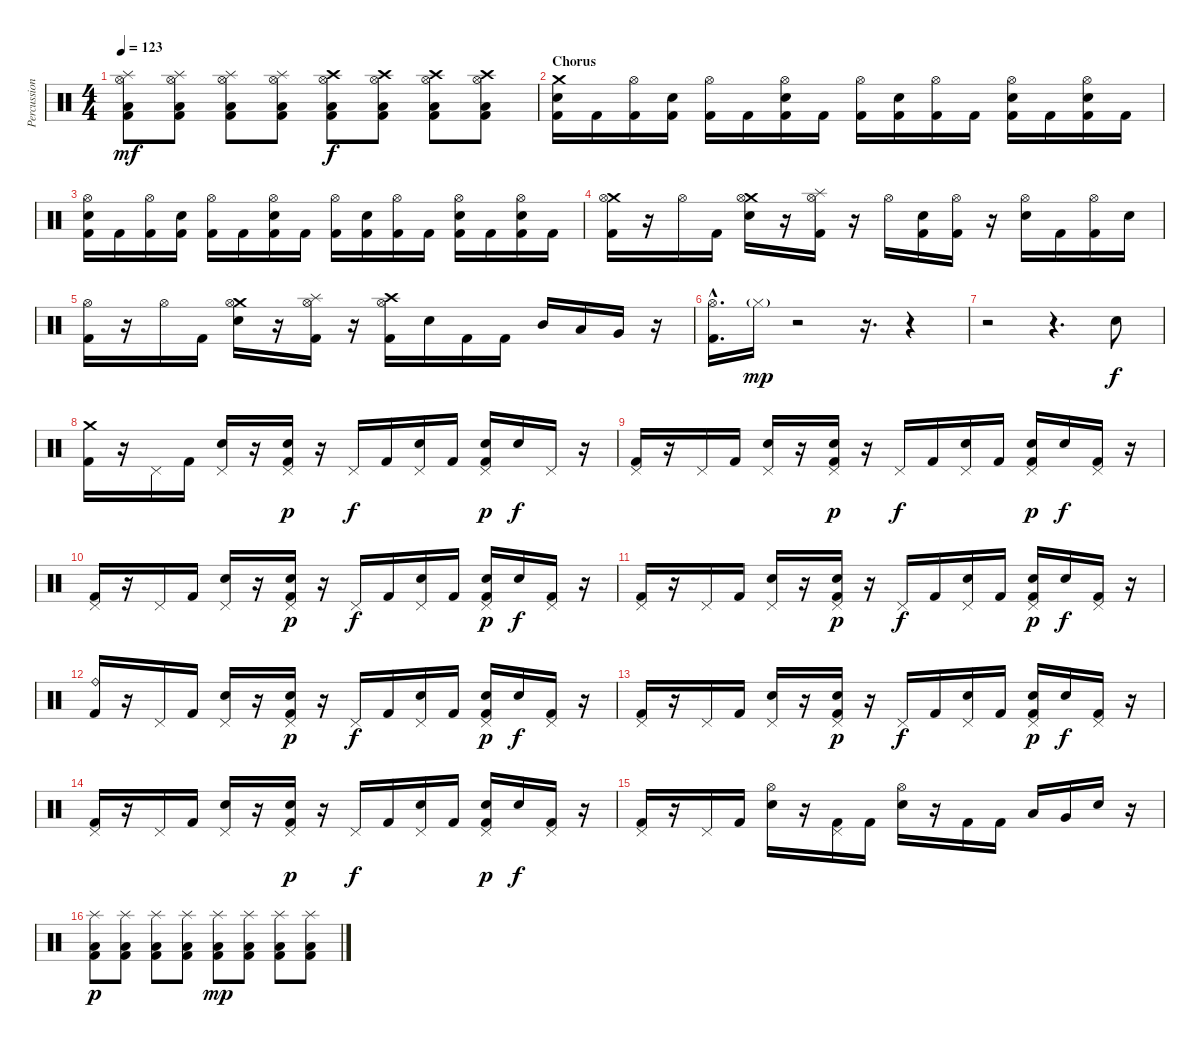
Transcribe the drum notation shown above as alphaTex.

\track ("Percussion" "Percussion") {instrument percussion}
\staff {score}
\articulation defaults
\ts (4 4)
\tempo 123
\clef neutral
\ks c
("Splash (hit)" "Hi-Hat (open)" "Low Floor Tom (hit)" "Kick (hit) 2").8{dy mf} ("Splash (hit)" "Hi-Hat (open)" "Low Floor Tom (hit)" "Kick (hit) 2").8 ("Splash (hit)" "Hi-Hat (open)" "Low Floor Tom (hit)" "Kick (hit) 2").8 ("Splash (hit)" "Hi-Hat (open)" "Low Floor Tom (hit)" "Kick (hit) 2").8 ("Hi-Hat (open)" "Crash high (hit)" "Low Floor Tom (hit)" "Kick (hit) 2").8{dy f} ("Hi-Hat (open)" "Crash high (hit)" "Low Floor Tom (hit)" "Kick (hit) 2").8 ("Hi-Hat (open)" "Crash high (hit)" "Low Floor Tom (hit)" "Kick (hit) 2").8 ("Hi-Hat (open)" "Crash high (hit)" "Low Floor Tom (hit)" "Kick (hit) 2").8 |
\section ("" "Chorus")
("Crash medium (hit)" "Electric Snare (hit)" "Kick (hit) 2").16 "Kick (hit) 2".16 ("Hi-Hat (open)" "Kick (hit) 2").16 ("Electric Snare (hit)" "Kick (hit) 2").16 ("Hi-Hat (open)" "Kick (hit) 2").16 "Kick (hit) 2".16 ("Hi-Hat (open)" "Electric Snare (hit)" "Kick (hit) 2").16 "Kick (hit) 2".16 ("Hi-Hat (open)" "Kick (hit) 2").16 ("Electric Snare (hit)" "Kick (hit) 2").16 ("Hi-Hat (open)" "Kick (hit) 2").16 "Kick (hit) 2".16 ("Hi-Hat (open)" "Electric Snare (hit)" "Kick (hit) 2").16 "Kick (hit) 2".16 ("Hi-Hat (open)" "Electric Snare (hit)" "Kick (hit) 2").16 "Kick (hit) 2".16 |
("Hi-Hat (open)" "Electric Snare (hit)" "Kick (hit) 2").16 "Kick (hit) 2".16 ("Hi-Hat (open)" "Kick (hit) 2").16 ("Electric Snare (hit)" "Kick (hit) 2").16 ("Hi-Hat (open)" "Kick (hit) 2").16 "Kick (hit) 2".16 ("Hi-Hat (open)" "Electric Snare (hit)" "Kick (hit) 2").16 "Kick (hit) 2".16 ("Hi-Hat (open)" "Kick (hit) 2").16 ("Electric Snare (hit)" "Kick (hit) 2").16 ("Hi-Hat (open)" "Kick (hit) 2").16 "Kick (hit) 2".16 ("Hi-Hat (open)" "Electric Snare (hit)" "Kick (hit) 2").16 "Kick (hit) 2".16 ("Hi-Hat (open)" "Electric Snare (hit)" "Kick (hit) 2").16 "Kick (hit) 2".16 |
("Crash medium (hit)" "Hi-Hat (open)" "Kick (hit) 2").16 r.16 "Hi-Hat (open)".16 "Kick (hit) 2".16 ("Crash medium (hit)" "Hi-Hat (open)" "Electric Snare (hit)").16 r.16 ("Splash (hit)" "Hi-Hat (open)" "Kick (hit) 2").16 r.16 "Hi-Hat (open)".16 ("Electric Snare (hit)" "Kick (hit) 2").16 ("Hi-Hat (open)" "Kick (hit) 2").16 r.16 ("Hi-Hat (open)" "Electric Snare (hit)").16 "Kick (hit) 2".16 ("Hi-Hat (open)" "Kick (hit) 2").16 "Electric Snare (hit)".16 |
("Hi-Hat (open)" "Kick (hit) 2").16 r.16 "Hi-Hat (open)".16 "Kick (hit) 2".16 ("Crash medium (hit)" "Hi-Hat (open)" "Electric Snare (hit)").16 r.16 ("Splash (hit)" "Hi-Hat (open)" "Kick (hit) 2").16 r.16 ("Hi-Hat (open)" "Crash high (hit)" "Kick (hit) 2").16 "Electric Snare (hit)".16 "Kick (hit) 2".16 "Kick (hit) 2".16 "Mid Tom (hit)".16 "Low Tom (hit)".16 "Very Low Tom (hit)".16 r.16 |
("Hi-Hat (open)"{hac} "Kick (hit) 2"{hac}).16{d} "Hi-Hat (closed)"{g}.16{dy mp} r.2 r.16{d} r.4 |
r.2 r.4{d} "Electric Snare (hit)".8{dy f} |
("Crash medium (hit)" "Kick (hit) 2").16 r.16 "Pedal Hi-Hat (hit)".16 "Kick (hit) 2".16 ("Pedal Hi-Hat (hit)" "Electric Snare (hit)").16 r.16 ("Pedal Hi-Hat (hit)" "Electric Snare (hit)" "Kick (hit) 2").16{dy p} r.16 "Pedal Hi-Hat (hit)".16{dy f} "Kick (hit) 2".16 ("Pedal Hi-Hat (hit)" "Electric Snare (hit)").16 "Kick (hit) 2".16 ("Pedal Hi-Hat (hit)" "Electric Snare (hit)" "Kick (hit) 2").16{dy p} "Electric Snare (hit)".16{dy f} "Pedal Hi-Hat (hit)".16 r.16 |
("Pedal Hi-Hat (hit)" "Kick (hit) 2").16 r.16 "Pedal Hi-Hat (hit)".16 "Kick (hit) 2".16 ("Pedal Hi-Hat (hit)" "Electric Snare (hit)").16 r.16 ("Pedal Hi-Hat (hit)" "Electric Snare (hit)" "Kick (hit) 2").16{dy p} r.16 "Pedal Hi-Hat (hit)".16{dy f} "Kick (hit) 2".16 ("Pedal Hi-Hat (hit)" "Electric Snare (hit)").16 "Kick (hit) 2".16 ("Pedal Hi-Hat (hit)" "Electric Snare (hit)" "Kick (hit) 2").16{dy p} "Electric Snare (hit)".16{dy f} ("Pedal Hi-Hat (hit)" "Kick (hit) 2").16 r.16 |
("Pedal Hi-Hat (hit)" "Kick (hit) 2").16 r.16 "Pedal Hi-Hat (hit)".16 "Kick (hit) 2".16 ("Pedal Hi-Hat (hit)" "Electric Snare (hit)").16 r.16 ("Pedal Hi-Hat (hit)" "Electric Snare (hit)" "Kick (hit) 2").16{dy p} r.16 "Pedal Hi-Hat (hit)".16{dy f} "Kick (hit) 2".16 ("Pedal Hi-Hat (hit)" "Electric Snare (hit)").16 "Kick (hit) 2".16 ("Pedal Hi-Hat (hit)" "Electric Snare (hit)" "Kick (hit) 2").16{dy p} "Electric Snare (hit)".16{dy f} ("Pedal Hi-Hat (hit)" "Kick (hit) 2").16 r.16 |
("Pedal Hi-Hat (hit)" "Kick (hit) 2").16 r.16 "Pedal Hi-Hat (hit)".16 "Kick (hit) 2".16 ("Pedal Hi-Hat (hit)" "Electric Snare (hit)").16 r.16 ("Pedal Hi-Hat (hit)" "Electric Snare (hit)" "Kick (hit) 2").16{dy p} r.16 "Pedal Hi-Hat (hit)".16{dy f} "Kick (hit) 2".16 ("Pedal Hi-Hat (hit)" "Electric Snare (hit)").16 "Kick (hit) 2".16 ("Pedal Hi-Hat (hit)" "Electric Snare (hit)" "Kick (hit) 2").16{dy p} "Electric Snare (hit)".16{dy f} ("Pedal Hi-Hat (hit)" "Kick (hit) 2").16 r.16 |
("Ride (bell)" "Kick (hit) 2").16 r.16 "Pedal Hi-Hat (hit)".16 "Kick (hit) 2".16 ("Pedal Hi-Hat (hit)" "Electric Snare (hit)").16 r.16 ("Pedal Hi-Hat (hit)" "Electric Snare (hit)" "Kick (hit) 2").16{dy p} r.16 "Pedal Hi-Hat (hit)".16{dy f} "Kick (hit) 2".16 ("Pedal Hi-Hat (hit)" "Electric Snare (hit)").16 "Kick (hit) 2".16 ("Pedal Hi-Hat (hit)" "Electric Snare (hit)" "Kick (hit) 2").16{dy p} "Electric Snare (hit)".16{dy f} ("Pedal Hi-Hat (hit)" "Kick (hit) 2").16 r.16 |
("Pedal Hi-Hat (hit)" "Kick (hit) 2").16 r.16 "Pedal Hi-Hat (hit)".16 "Kick (hit) 2".16 ("Pedal Hi-Hat (hit)" "Electric Snare (hit)").16 r.16 ("Pedal Hi-Hat (hit)" "Electric Snare (hit)" "Kick (hit) 2").16{dy p} r.16 "Pedal Hi-Hat (hit)".16{dy f} "Kick (hit) 2".16 ("Pedal Hi-Hat (hit)" "Electric Snare (hit)").16 "Kick (hit) 2".16 ("Pedal Hi-Hat (hit)" "Electric Snare (hit)" "Kick (hit) 2").16{dy p} "Electric Snare (hit)".16{dy f} ("Pedal Hi-Hat (hit)" "Kick (hit) 2").16 r.16 |
("Pedal Hi-Hat (hit)" "Kick (hit) 2").16 r.16 "Pedal Hi-Hat (hit)".16 "Kick (hit) 2".16 ("Pedal Hi-Hat (hit)" "Electric Snare (hit)").16 r.16 ("Pedal Hi-Hat (hit)" "Electric Snare (hit)" "Kick (hit) 2").16{dy p} r.16 "Pedal Hi-Hat (hit)".16{dy f} "Kick (hit) 2".16 ("Pedal Hi-Hat (hit)" "Electric Snare (hit)").16 "Kick (hit) 2".16 ("Pedal Hi-Hat (hit)" "Electric Snare (hit)" "Kick (hit) 2").16{dy p} "Electric Snare (hit)".16{dy f} ("Pedal Hi-Hat (hit)" "Kick (hit) 2").16 r.16 |
("Pedal Hi-Hat (hit)" "Kick (hit) 2").16 r.16 "Pedal Hi-Hat (hit)".16 "Kick (hit) 2".16 ("Hi-Hat (open)" "Electric Snare (hit)").16 r.16 ("Pedal Hi-Hat (hit)" "Kick (hit) 2").16 "Kick (hit) 2".16 ("Hi-Hat (open)" "Electric Snare (hit)").16 r.16 "Kick (hit) 2".16 "Kick (hit) 2".16 "Low Tom (hit)".16 "Very Low Tom (hit)".16 "Electric Snare (hit)".16 r.16 |
("Splash (hit)" "Low Floor Tom (hit)" "Kick (hit) 2").8{dy p} ("Splash (hit)" "Low Floor Tom (hit)" "Kick (hit) 2").8 ("Splash (hit)" "Low Floor Tom (hit)" "Kick (hit) 2").8 ("Splash (hit)" "Low Floor Tom (hit)" "Kick (hit) 2").8 ("Splash (hit)" "Low Floor Tom (hit)" "Kick (hit) 2").8{dy mp} ("Splash (hit)" "Low Floor Tom (hit)" "Kick (hit) 2").8 ("Splash (hit)" "Low Floor Tom (hit)" "Kick (hit) 2").8 ("Splash (hit)" "Low Floor Tom (hit)" "Kick (hit) 2").8
